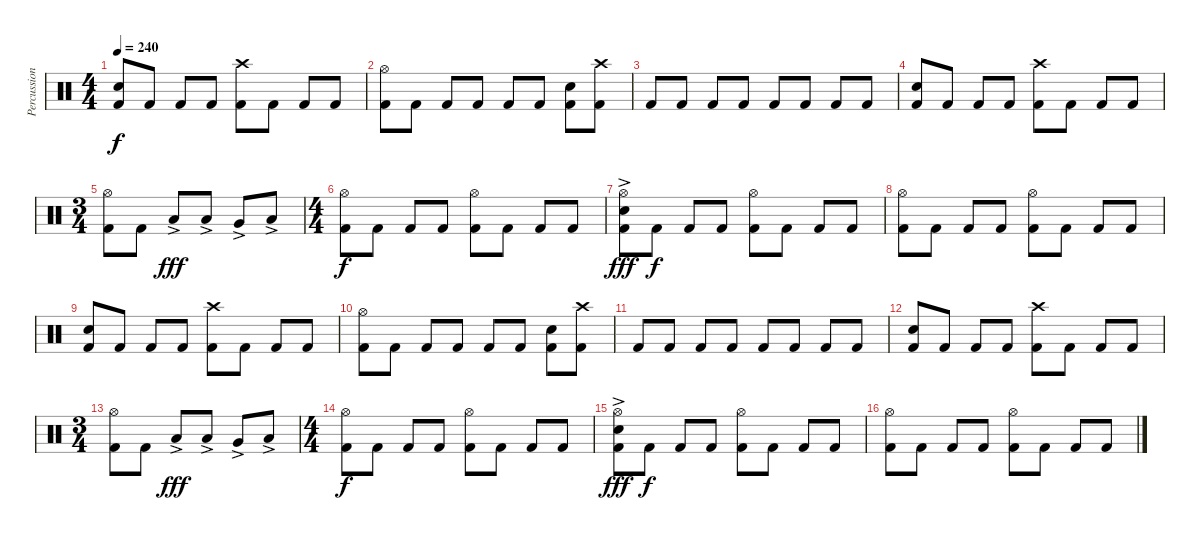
\track ("Percussion" "Percussion") {instrument percussion}
\staff {score}
\articulation defaults
\ts (4 4)
\tempo 240
\clef neutral
\ks c
("Kick (hit) 2" "Electric Snare (hit)").8{dy f} "Kick (hit) 2".8 "Kick (hit) 2".8 "Kick (hit) 2".8 ("Kick (hit) 2" "Crash high (hit)").8 "Kick (hit) 2".8 "Kick (hit) 2".8 "Kick (hit) 2".8 |
("Kick (hit) 2" "Hi-Hat (open)").8 "Kick (hit) 2".8 "Kick (hit) 2".8 "Kick (hit) 2".8 "Kick (hit) 2".8 "Kick (hit) 2".8 ("Kick (hit) 2" "Electric Snare (hit)").8 ("Kick (hit) 2" "Crash high (hit)").8 |
"Kick (hit) 2".8 "Kick (hit) 2".8 "Kick (hit) 2".8 "Kick (hit) 2".8 "Kick (hit) 2".8 "Kick (hit) 2".8 "Kick (hit) 2".8 "Kick (hit) 2".8 |
("Kick (hit) 2" "Electric Snare (hit)").8 "Kick (hit) 2".8 "Kick (hit) 2".8 "Kick (hit) 2".8 ("Kick (hit) 2" "Crash high (hit)").8 "Kick (hit) 2".8 "Kick (hit) 2".8 "Kick (hit) 2".8 |
\ts (3 4)
("Kick (hit) 2" "Hi-Hat (open)").8 "Kick (hit) 2".8 "Low Tom (hit)"{ac}.8{dy fff} "Low Tom (hit)"{ac}.8 "Very Low Tom (hit)"{ac}.8 "Low Floor Tom (hit)"{ac}.8 |
\ts (4 4)
("Kick (hit) 2" "Hi-Hat (open)").8{dy f} "Kick (hit) 2".8 "Kick (hit) 2".8 "Kick (hit) 2".8 ("Kick (hit) 2" "Hi-Hat (open)").8 "Kick (hit) 2".8 "Kick (hit) 2".8 "Kick (hit) 2".8 |
("Kick (hit) 2" "Electric Snare (hit)"{ac} "Hi-Hat (open)").8{dy fff} "Kick (hit) 2".8{dy f} "Kick (hit) 2".8 "Kick (hit) 2".8 ("Kick (hit) 2" "Hi-Hat (open)").8 "Kick (hit) 2".8 "Kick (hit) 2".8 "Kick (hit) 2".8 |
("Kick (hit) 2" "Hi-Hat (open)").8 "Kick (hit) 2".8 "Kick (hit) 2".8 "Kick (hit) 2".8 ("Kick (hit) 2" "Hi-Hat (open)").8 "Kick (hit) 2".8 "Kick (hit) 2".8 "Kick (hit) 2".8 |
("Kick (hit) 2" "Electric Snare (hit)").8 "Kick (hit) 2".8 "Kick (hit) 2".8 "Kick (hit) 2".8 ("Kick (hit) 2" "Crash high (hit)").8 "Kick (hit) 2".8 "Kick (hit) 2".8 "Kick (hit) 2".8 |
("Kick (hit) 2" "Hi-Hat (open)").8 "Kick (hit) 2".8 "Kick (hit) 2".8 "Kick (hit) 2".8 "Kick (hit) 2".8 "Kick (hit) 2".8 ("Kick (hit) 2" "Electric Snare (hit)").8 ("Kick (hit) 2" "Crash high (hit)").8 |
"Kick (hit) 2".8 "Kick (hit) 2".8 "Kick (hit) 2".8 "Kick (hit) 2".8 "Kick (hit) 2".8 "Kick (hit) 2".8 "Kick (hit) 2".8 "Kick (hit) 2".8 |
("Kick (hit) 2" "Electric Snare (hit)").8 "Kick (hit) 2".8 "Kick (hit) 2".8 "Kick (hit) 2".8 ("Kick (hit) 2" "Crash high (hit)").8 "Kick (hit) 2".8 "Kick (hit) 2".8 "Kick (hit) 2".8 |
\ts (3 4)
("Kick (hit) 2" "Hi-Hat (open)").8 "Kick (hit) 2".8 "Low Tom (hit)"{ac}.8{dy fff} "Low Tom (hit)"{ac}.8 "Very Low Tom (hit)"{ac}.8 "Low Floor Tom (hit)"{ac}.8 |
\ts (4 4)
("Kick (hit) 2" "Hi-Hat (open)").8{dy f} "Kick (hit) 2".8 "Kick (hit) 2".8 "Kick (hit) 2".8 ("Kick (hit) 2" "Hi-Hat (open)").8 "Kick (hit) 2".8 "Kick (hit) 2".8 "Kick (hit) 2".8 |
("Kick (hit) 2" "Electric Snare (hit)"{ac} "Hi-Hat (open)").8{dy fff} "Kick (hit) 2".8{dy f} "Kick (hit) 2".8 "Kick (hit) 2".8 ("Kick (hit) 2" "Hi-Hat (open)").8 "Kick (hit) 2".8 "Kick (hit) 2".8 "Kick (hit) 2".8 |
("Kick (hit) 2" "Hi-Hat (open)").8 "Kick (hit) 2".8 "Kick (hit) 2".8 "Kick (hit) 2".8 ("Kick (hit) 2" "Hi-Hat (open)").8 "Kick (hit) 2".8 "Kick (hit) 2".8 "Kick (hit) 2".8
